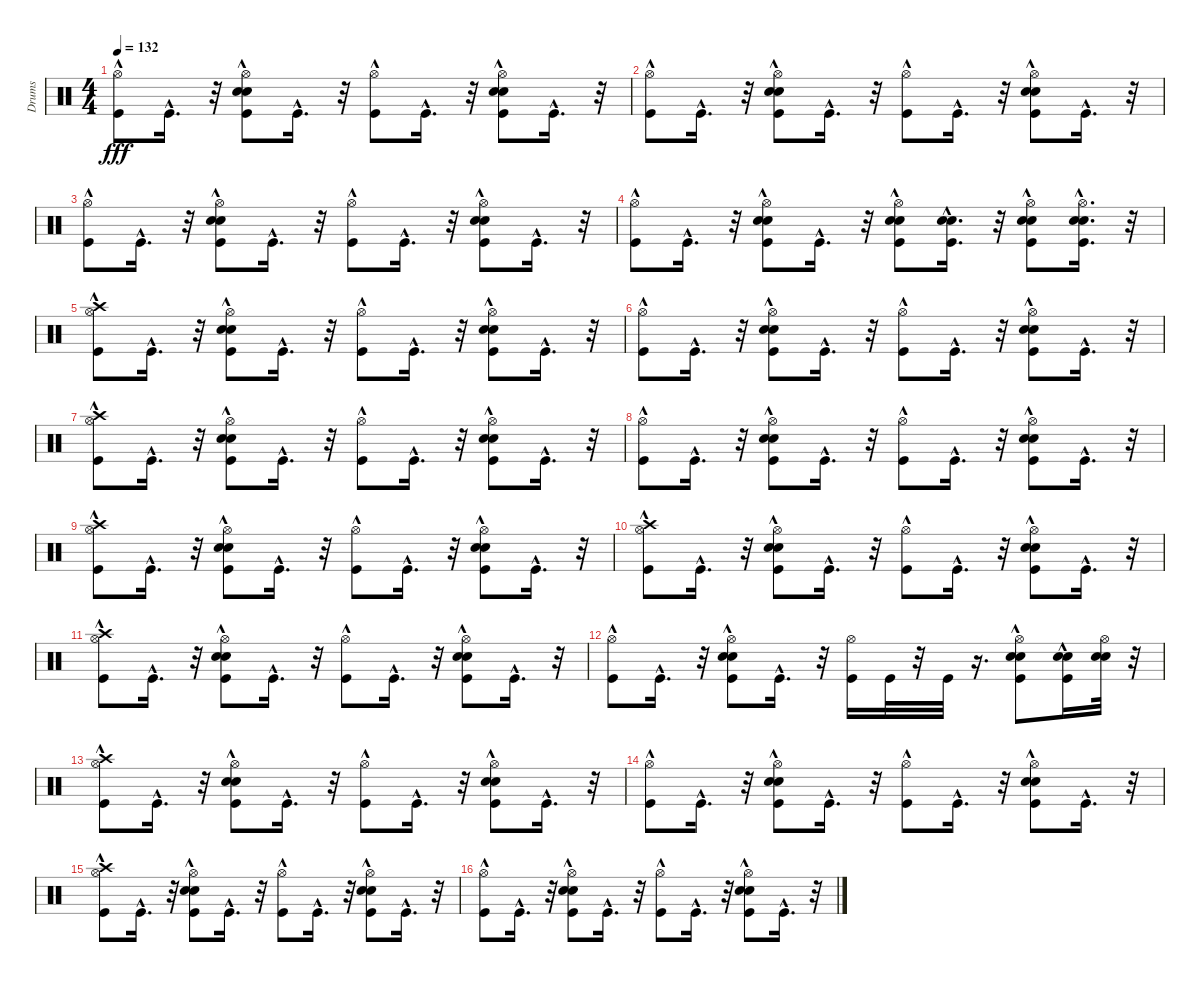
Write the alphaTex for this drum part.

\track ("Drums" "Drums") {instrument percussion}
\staff {score}
\articulation defaults
\ts (4 4)
\tempo 132
\clef neutral
\ks c
("Hi-Hat (open)" "Kick (hit)"{hac}).8{dy fff} "Kick (hit)"{hac}.16{d} r.32 ("Hi-Hat (open)" "Kick (hit)"{hac} "Snare (hit) 2"{hac} "Electric Snare (hit)"{hac}).8 "Kick (hit)"{hac}.16{d} r.32 ("Hi-Hat (open)" "Kick (hit)"{hac}).8 "Kick (hit)"{hac}.16{d} r.32 ("Hi-Hat (open)" "Kick (hit)"{hac} "Snare (hit) 2"{hac} "Electric Snare (hit)"{hac}).8 "Kick (hit)"{hac}.16{d} r.32 |
("Hi-Hat (open)" "Kick (hit)"{hac}).8 "Kick (hit)"{hac}.16{d} r.32 ("Hi-Hat (open)" "Kick (hit)"{hac} "Snare (hit) 2"{hac} "Electric Snare (hit)"{hac}).8 "Kick (hit)"{hac}.16{d} r.32 ("Hi-Hat (open)" "Kick (hit)"{hac}).8 "Kick (hit)"{hac}.16{d} r.32 ("Hi-Hat (open)" "Kick (hit)"{hac} "Snare (hit) 2"{hac} "Electric Snare (hit)"{hac}).8 "Kick (hit)"{hac}.16{d} r.32 |
("Hi-Hat (open)" "Kick (hit)"{hac}).8 "Kick (hit)"{hac}.16{d} r.32 ("Hi-Hat (open)" "Kick (hit)"{hac} "Snare (hit) 2"{hac} "Electric Snare (hit)"{hac}).8 "Kick (hit)"{hac}.16{d} r.32 ("Hi-Hat (open)" "Kick (hit)"{hac}).8 "Kick (hit)"{hac}.16{d} r.32 ("Hi-Hat (open)" "Kick (hit)"{hac} "Snare (hit) 2"{hac} "Electric Snare (hit)"{hac}).8 "Kick (hit)"{hac}.16{d} r.32 |
("Hi-Hat (open)" "Kick (hit)"{hac}).8 "Kick (hit)"{hac}.16{d} r.32 ("Hi-Hat (open)" "Kick (hit)"{hac} "Snare (hit) 2"{hac} "Electric Snare (hit)"{hac}).8 "Kick (hit)"{hac}.16{d} r.32 ("Hi-Hat (open)" "Kick (hit)"{hac} "Snare (hit) 2"{hac} "Electric Snare (hit)"{hac}).8 ("Kick (hit)"{hac} "Snare (hit) 2"{hac} "Electric Snare (hit)"{hac}).16{d} r.32 ("Hi-Hat (open)" "Kick (hit)"{hac} "Snare (hit) 2"{hac} "Electric Snare (hit)"{hac}).8 ("Kick (hit)"{hac} "Snare (hit) 2"{hac} "Electric Snare (hit)"{hac} "Hi-Hat (open)"{hac}).16{d} r.32 |
("Hi-Hat (open)" "Kick (hit)"{hac} "Crash high (hit)"{hac}).8 "Kick (hit)"{hac}.16{d} r.32 ("Hi-Hat (open)" "Kick (hit)"{hac} "Snare (hit) 2"{hac} "Electric Snare (hit)"{hac}).8 "Kick (hit)"{hac}.16{d} r.32 ("Hi-Hat (open)" "Kick (hit)"{hac}).8 "Kick (hit)"{hac}.16{d} r.32 ("Hi-Hat (open)" "Kick (hit)"{hac} "Snare (hit) 2"{hac} "Electric Snare (hit)"{hac}).8 "Kick (hit)"{hac}.16{d} r.32 |
("Hi-Hat (open)" "Kick (hit)"{hac}).8 "Kick (hit)"{hac}.16{d} r.32 ("Hi-Hat (open)" "Kick (hit)"{hac} "Snare (hit) 2"{hac} "Electric Snare (hit)"{hac}).8 "Kick (hit)"{hac}.16{d} r.32 ("Hi-Hat (open)" "Kick (hit)"{hac}).8 "Kick (hit)"{hac}.16{d} r.32 ("Hi-Hat (open)" "Kick (hit)"{hac} "Snare (hit) 2"{hac} "Electric Snare (hit)"{hac}).8 "Kick (hit)"{hac}.16{d} r.32 |
("Hi-Hat (open)" "Kick (hit)"{hac} "Crash high (hit)"{hac}).8 "Kick (hit)"{hac}.16{d} r.32 ("Hi-Hat (open)" "Kick (hit)"{hac} "Snare (hit) 2"{hac} "Electric Snare (hit)"{hac}).8 "Kick (hit)"{hac}.16{d} r.32 ("Hi-Hat (open)" "Kick (hit)"{hac}).8 "Kick (hit)"{hac}.16{d} r.32 ("Hi-Hat (open)" "Kick (hit)"{hac} "Snare (hit) 2"{hac} "Electric Snare (hit)"{hac}).8 "Kick (hit)"{hac}.16{d} r.32 |
("Hi-Hat (open)" "Kick (hit)"{hac}).8 "Kick (hit)"{hac}.16{d} r.32 ("Hi-Hat (open)" "Kick (hit)"{hac} "Snare (hit) 2"{hac} "Electric Snare (hit)"{hac}).8 "Kick (hit)"{hac}.16{d} r.32 ("Hi-Hat (open)" "Kick (hit)"{hac}).8 "Kick (hit)"{hac}.16{d} r.32 ("Hi-Hat (open)" "Kick (hit)"{hac} "Snare (hit) 2"{hac} "Electric Snare (hit)"{hac}).8 "Kick (hit)"{hac}.16{d} r.32 |
("Hi-Hat (open)" "Kick (hit)"{hac} "Crash high (hit)").8 "Kick (hit)"{hac}.16{d} r.32 ("Hi-Hat (open)" "Kick (hit)"{hac} "Snare (hit) 2"{hac} "Electric Snare (hit)"{hac}).8 "Kick (hit)"{hac}.16{d} r.32 ("Hi-Hat (open)" "Kick (hit)"{hac}).8 "Kick (hit)"{hac}.16{d} r.32 ("Hi-Hat (open)" "Kick (hit)"{hac} "Snare (hit) 2"{hac} "Electric Snare (hit)"{hac}).8 "Kick (hit)"{hac}.16{d} r.32 |
("Hi-Hat (open)" "Kick (hit)"{hac} "Crash high (hit)"{hac}).8 "Kick (hit)"{hac}.16{d} r.32 ("Hi-Hat (open)" "Kick (hit)"{hac} "Snare (hit) 2"{hac} "Electric Snare (hit)"{hac}).8 "Kick (hit)"{hac}.16{d} r.32 ("Hi-Hat (open)" "Kick (hit)"{hac}).8 "Kick (hit)"{hac}.16{d} r.32 ("Hi-Hat (open)" "Kick (hit)"{hac} "Snare (hit) 2"{hac} "Electric Snare (hit)"{hac}).8 "Kick (hit)"{hac}.16{d} r.32 |
("Hi-Hat (open)" "Kick (hit)"{hac} "Crash high (hit)"{hac}).8 "Kick (hit)"{hac}.16{d} r.32 ("Hi-Hat (open)" "Kick (hit)"{hac} "Snare (hit) 2"{hac} "Electric Snare (hit)"{hac}).8 "Kick (hit)"{hac}.16{d} r.32 ("Hi-Hat (open)" "Kick (hit)"{hac}).8 "Kick (hit)"{hac}.16{d} r.32 ("Hi-Hat (open)" "Kick (hit)"{hac} "Snare (hit) 2"{hac} "Electric Snare (hit)"{hac}).8 "Kick (hit)"{hac}.16{d} r.32 |
("Hi-Hat (open)" "Kick (hit)"{hac}).8 "Kick (hit)"{hac}.16{d} r.32 ("Hi-Hat (open)" "Kick (hit)"{hac} "Snare (hit) 2"{hac} "Electric Snare (hit)"{hac}).8 "Kick (hit)"{hac}.16{d} r.32 ("Hi-Hat (open)" "Kick (hit)").16 "Kick (hit)".32 r.32 "Kick (hit)".32 r.16{d} ("Hi-Hat (open)" "Kick (hit)"{hac} "Snare (hit) 2"{hac} "Electric Snare (hit)"{hac}).8 ("Kick (hit)"{hac} "Snare (hit) 2" "Electric Snare (hit)").16 ("Snare (hit) 2" "Electric Snare (hit)" "Hi-Hat (open)").32 r.32 |
("Hi-Hat (open)" "Kick (hit)"{hac} "Crash high (hit)"{hac}).8 "Kick (hit)"{hac}.16{d} r.32 ("Hi-Hat (open)" "Kick (hit)"{hac} "Snare (hit) 2"{hac} "Electric Snare (hit)"{hac}).8 "Kick (hit)"{hac}.16{d} r.32 ("Hi-Hat (open)" "Kick (hit)"{hac}).8 "Kick (hit)"{hac}.16{d} r.32 ("Hi-Hat (open)" "Kick (hit)"{hac} "Snare (hit) 2"{hac} "Electric Snare (hit)"{hac}).8 "Kick (hit)"{hac}.16{d} r.32 |
("Hi-Hat (open)" "Kick (hit)"{hac}).8 "Kick (hit)"{hac}.16{d} r.32 ("Hi-Hat (open)" "Kick (hit)"{hac} "Snare (hit) 2"{hac} "Electric Snare (hit)"{hac}).8 "Kick (hit)"{hac}.16{d} r.32 ("Hi-Hat (open)" "Kick (hit)"{hac}).8 "Kick (hit)"{hac}.16{d} r.32 ("Hi-Hat (open)" "Kick (hit)"{hac} "Snare (hit) 2"{hac} "Electric Snare (hit)"{hac}).8 "Kick (hit)"{hac}.16{d} r.32 |
("Hi-Hat (open)" "Kick (hit)"{hac} "Crash high (hit)"{hac}).8 "Kick (hit)"{hac}.16{d} r.32 ("Hi-Hat (open)" "Kick (hit)"{hac} "Snare (hit) 2"{hac} "Electric Snare (hit)"{hac}).8 "Kick (hit)"{hac}.16{d} r.32 ("Hi-Hat (open)" "Kick (hit)"{hac}).8 "Kick (hit)"{hac}.16{d} r.32 ("Hi-Hat (open)" "Kick (hit)"{hac} "Snare (hit) 2"{hac} "Electric Snare (hit)"{hac}).8 "Kick (hit)"{hac}.16{d} r.32 |
("Hi-Hat (open)" "Kick (hit)"{hac}).8 "Kick (hit)"{hac}.16{d} r.32 ("Hi-Hat (open)" "Kick (hit)"{hac} "Snare (hit) 2"{hac} "Electric Snare (hit)"{hac}).8 "Kick (hit)"{hac}.16{d} r.32 ("Hi-Hat (open)" "Kick (hit)"{hac}).8 "Kick (hit)"{hac}.16{d} r.32 ("Hi-Hat (open)" "Kick (hit)"{hac} "Snare (hit) 2"{hac} "Electric Snare (hit)"{hac}).8 "Kick (hit)"{hac}.16{d} r.32
